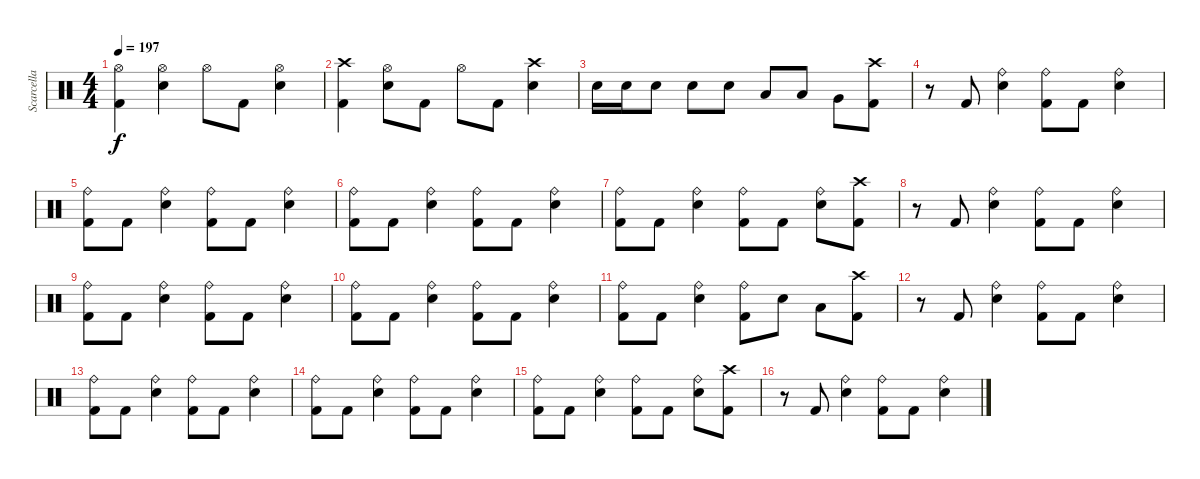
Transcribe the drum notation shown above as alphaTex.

\track ("Scarcella" "Scarcella") {instrument percussion}
\staff {score}
\articulation defaults
\ts (4 4)
\tempo 197
\clef neutral
\ks c
("Hi-Hat (open)" "Kick (hit) 2").4{dy f} ("Hi-Hat (open)" "Electric Snare (hit)").4 "Hi-Hat (open)".8 "Kick (hit) 2".8 ("Hi-Hat (open)" "Electric Snare (hit)").4 |
("Crash high (hit)" "Kick (hit) 2").4 ("Hi-Hat (open)" "Electric Snare (hit)").8 "Kick (hit) 2".8 "Hi-Hat (open)".8 "Kick (hit) 2".8 ("Crash high (hit)" "Electric Snare (hit)").4 |
"Electric Snare (hit)".16 "Electric Snare (hit)".16 "Electric Snare (hit)".8 "Electric Snare (hit)".8 "Electric Snare (hit)".8 "Low Tom (hit)".8 "Low Tom (hit)".8 "Very Low Tom (hit)".8 ("Crash high (hit)" "Kick (hit) 2").8 |
r.8 "Kick (hit) 2".8 ("Ride (bell)" "Electric Snare (hit)").4 ("Ride (bell)" "Kick (hit) 2").8 "Kick (hit) 2".8 ("Ride (bell)" "Electric Snare (hit)").4 |
("Ride (bell)" "Kick (hit) 2").8 "Kick (hit) 2".8 ("Ride (bell)" "Electric Snare (hit)").4 ("Ride (bell)" "Kick (hit) 2").8 "Kick (hit) 2".8 ("Ride (bell)" "Electric Snare (hit)").4 |
("Ride (bell)" "Kick (hit) 2").8 "Kick (hit) 2".8 ("Ride (bell)" "Electric Snare (hit)").4 ("Ride (bell)" "Kick (hit) 2").8 "Kick (hit) 2".8 ("Ride (bell)" "Electric Snare (hit)").4 |
("Ride (bell)" "Kick (hit) 2").8 "Kick (hit) 2".8 ("Ride (bell)" "Electric Snare (hit)").4 ("Ride (bell)" "Kick (hit) 2").8 "Kick (hit) 2".8 ("Ride (bell)" "Electric Snare (hit)").8 ("Crash high (hit)" "Kick (hit) 2").8 |
r.8 "Kick (hit) 2".8 ("Ride (bell)" "Electric Snare (hit)").4 ("Ride (bell)" "Kick (hit) 2").8 "Kick (hit) 2".8 ("Ride (bell)" "Electric Snare (hit)").4 |
("Ride (bell)" "Kick (hit) 2").8 "Kick (hit) 2".8 ("Ride (bell)" "Electric Snare (hit)").4 ("Ride (bell)" "Kick (hit) 2").8 "Kick (hit) 2".8 ("Ride (bell)" "Electric Snare (hit)").4 |
("Ride (bell)" "Kick (hit) 2").8 "Kick (hit) 2".8 ("Ride (bell)" "Electric Snare (hit)").4 ("Ride (bell)" "Kick (hit) 2").8 "Kick (hit) 2".8 ("Ride (bell)" "Electric Snare (hit)").4 |
("Ride (bell)" "Kick (hit) 2").8 "Kick (hit) 2".8 ("Ride (bell)" "Electric Snare (hit)").4 ("Ride (bell)" "Kick (hit) 2").8 "Electric Snare (hit)".8 "Low Tom (hit)".8 ("Crash high (hit)" "Kick (hit) 2").8 |
r.8 "Kick (hit) 2".8 ("Ride (bell)" "Electric Snare (hit)").4 ("Ride (bell)" "Kick (hit) 2").8 "Kick (hit) 2".8 ("Ride (bell)" "Electric Snare (hit)").4 |
("Ride (bell)" "Kick (hit) 2").8 "Kick (hit) 2".8 ("Ride (bell)" "Electric Snare (hit)").4 ("Ride (bell)" "Kick (hit) 2").8 "Kick (hit) 2".8 ("Ride (bell)" "Electric Snare (hit)").4 |
("Ride (bell)" "Kick (hit) 2").8 "Kick (hit) 2".8 ("Ride (bell)" "Electric Snare (hit)").4 ("Ride (bell)" "Kick (hit) 2").8 "Kick (hit) 2".8 ("Ride (bell)" "Electric Snare (hit)").4 |
("Ride (bell)" "Kick (hit) 2").8 "Kick (hit) 2".8 ("Ride (bell)" "Electric Snare (hit)").4 ("Ride (bell)" "Kick (hit) 2").8 "Kick (hit) 2".8 ("Ride (bell)" "Electric Snare (hit)").8 ("Crash high (hit)" "Kick (hit) 2").8 |
r.8 "Kick (hit) 2".8 ("Ride (bell)" "Electric Snare (hit)").4 ("Ride (bell)" "Kick (hit) 2").8 "Kick (hit) 2".8 ("Ride (bell)" "Electric Snare (hit)").4
